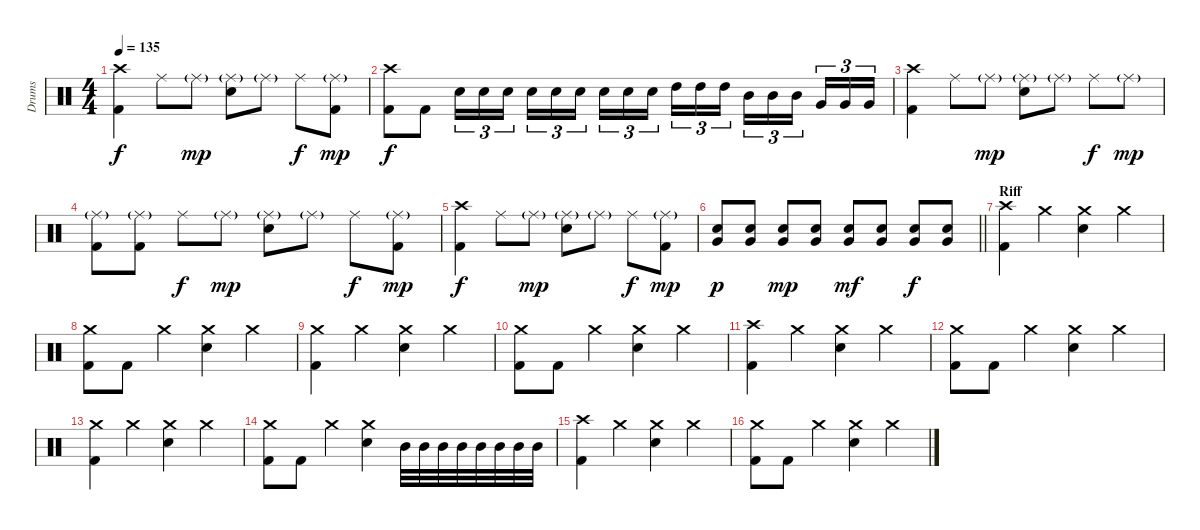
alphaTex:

\track ("Drums" "Drums") {instrument percussion}
\staff {score}
\articulation defaults
\ts (4 4)
\tempo 135
\clef neutral
\ks c
("Crash high (hit)" "Kick (hit) 2").4{dy f} "Ride (middle)".8 "Ride (middle)"{g}.8{dy mp} ("Ride (middle)"{g} "Snare (hit) 2").8 "Ride (middle)"{g}.8 "Ride (middle)".8{dy f} ("Ride (middle)"{g} "Kick (hit) 2").8{dy mp} |
("Crash high (hit)" "Kick (hit) 2").8{dy f} "Kick (hit) 2".8 "Snare (hit) 2".16{tu (3 2)} "Snare (hit) 2".16{tu (3 2)} "Snare (hit) 2".16{tu (3 2) beam splitsecondary} "Snare (hit) 2".16{tu (3 2)} "Snare (hit) 2".16{tu (3 2)} "Snare (hit) 2".16{tu (3 2)} "Snare (hit) 2".16{tu (3 2)} "Snare (hit) 2".16{tu (3 2)} "Snare (hit) 2".16{tu (3 2) beam splitsecondary} "High Tom (hit)".16{tu (3 2)} "High Tom (hit)".16{tu (3 2)} "High Tom (hit)".16{tu (3 2)} "Mid Tom (hit)".16{tu (3 2)} "Mid Tom (hit)".16{tu (3 2)} "Mid Tom (hit)".16{tu (3 2) beam splitsecondary} "Very Low Tom (hit)".16{tu (3 2)} "Very Low Tom (hit)".16{tu (3 2)} "Very Low Tom (hit)".16{tu (3 2)} |
("Crash high (hit)" "Kick (hit) 2").4 "Ride (middle)".8 "Ride (middle)"{g}.8{dy mp} ("Ride (middle)"{g} "Snare (hit) 2").8 "Ride (middle)"{g}.8 "Ride (middle)".8{dy f} "Ride (middle)"{g}.8{dy mp} |
("Ride (middle)"{g} "Kick (hit) 2").8 ("Ride (middle)"{g} "Kick (hit) 2").8 "Ride (middle)".8{dy f} "Ride (middle)"{g}.8{dy mp} ("Ride (middle)"{g} "Snare (hit) 2").8 "Ride (middle)"{g}.8 "Ride (middle)".8{dy f} ("Ride (middle)"{g} "Kick (hit) 2").8{dy mp} |
("Crash high (hit)" "Kick (hit) 2").4{dy f} "Ride (middle)".8 "Ride (middle)"{g}.8{dy mp} ("Ride (middle)"{g} "Snare (hit) 2").8 "Ride (middle)"{g}.8 "Ride (middle)".8{dy f} ("Ride (middle)"{g} "Kick (hit) 2").8{dy mp} |
\barLineRight lightlight
("Snare (hit) 2" "Very Low Tom (hit)").8{dy p} ("Snare (hit) 2" "Very Low Tom (hit)").8 ("Snare (hit) 2" "Very Low Tom (hit)").8{dy mp} ("Snare (hit) 2" "Very Low Tom (hit)").8 ("Snare (hit) 2" "Very Low Tom (hit)").8{dy mf} ("Snare (hit) 2" "Very Low Tom (hit)").8 ("Snare (hit) 2" "Very Low Tom (hit)").8{dy f} ("Snare (hit) 2" "Very Low Tom (hit)").8 |
\section ("" "Riff")
("Crash high (hit)" "Kick (hit) 2").4 "Crash medium (hit)".4 ("Crash medium (hit)" "Snare (hit) 2").4 "Crash medium (hit)".4 |
("Crash medium (hit)" "Kick (hit) 2").8 "Kick (hit) 2".8 "Crash medium (hit)".4 ("Crash medium (hit)" "Snare (hit) 2").4 "Crash medium (hit)".4 |
("Crash medium (hit)" "Kick (hit) 2").4 "Crash medium (hit)".4 ("Crash medium (hit)" "Snare (hit) 2").4 "Crash medium (hit)".4 |
("Crash medium (hit)" "Kick (hit) 2").8 "Kick (hit) 2".8 "Crash medium (hit)".4 ("Crash medium (hit)" "Snare (hit) 2").4 "Crash medium (hit)".4 |
("Crash high (hit)" "Kick (hit) 2").4 "Crash medium (hit)".4 ("Crash medium (hit)" "Snare (hit) 2").4 "Crash medium (hit)".4 |
("Crash medium (hit)" "Kick (hit) 2").8 "Kick (hit) 2".8 "Crash medium (hit)".4 ("Crash medium (hit)" "Snare (hit) 2").4 "Crash medium (hit)".4 |
("Crash medium (hit)" "Kick (hit) 2").4 "Crash medium (hit)".4 ("Crash medium (hit)" "Snare (hit) 2").4 "Crash medium (hit)".4 |
("Crash medium (hit)" "Kick (hit) 2").8 "Kick (hit) 2".8 "Crash medium (hit)".4 ("Crash medium (hit)" "Snare (hit) 2").4 "Mid Tom (hit)".32 "Mid Tom (hit)".32 "Mid Tom (hit)".32 "Mid Tom (hit)".32 "Mid Tom (hit)".32 "Mid Tom (hit)".32 "Mid Tom (hit)".32 "Mid Tom (hit)".32 |
("Crash high (hit)" "Kick (hit) 2").4 "Crash medium (hit)".4 ("Crash medium (hit)" "Snare (hit) 2").4 "Crash medium (hit)".4 |
("Crash medium (hit)" "Kick (hit) 2").8 "Kick (hit) 2".8 "Crash medium (hit)".4 ("Crash medium (hit)" "Snare (hit) 2").4 "Crash medium (hit)".4
